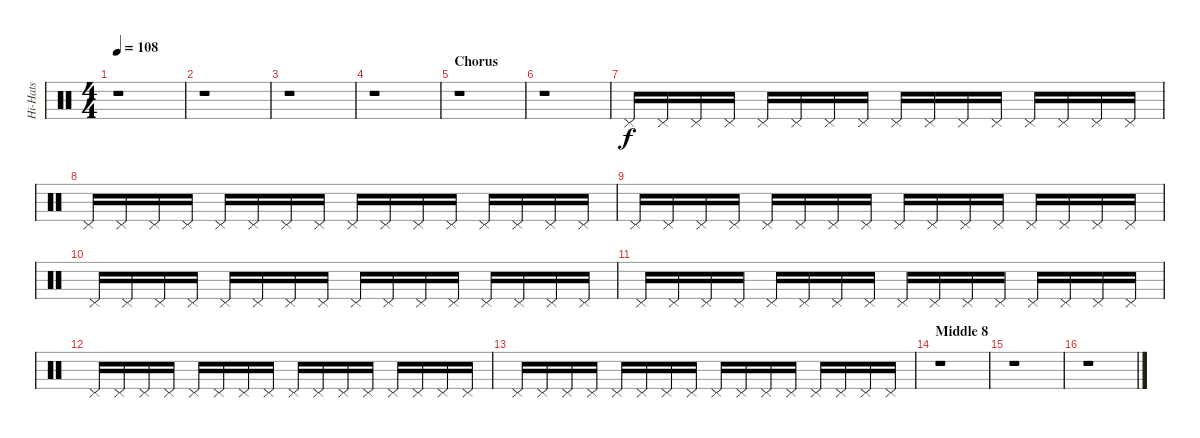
\track ("Hi-Hats" "Hi-Hats") {instrument percussion}
\staff {score}
\articulation defaults
\ts (4 4)
\tempo 108
\clef neutral
\ks c
r.1{dy f} |
r.1 |
r.1 |
r.1 |
\section ("" "Chorus")
r.1 |
r.1 |
"Pedal Hi-Hat (hit)".16 "Pedal Hi-Hat (hit)".16 "Pedal Hi-Hat (hit)".16 "Pedal Hi-Hat (hit)".16 "Pedal Hi-Hat (hit)".16 "Pedal Hi-Hat (hit)".16 "Pedal Hi-Hat (hit)".16 "Pedal Hi-Hat (hit)".16 "Pedal Hi-Hat (hit)".16 "Pedal Hi-Hat (hit)".16 "Pedal Hi-Hat (hit)".16 "Pedal Hi-Hat (hit)".16 "Pedal Hi-Hat (hit)".16 "Pedal Hi-Hat (hit)".16 "Pedal Hi-Hat (hit)".16 "Pedal Hi-Hat (hit)".16 |
"Pedal Hi-Hat (hit)".16 "Pedal Hi-Hat (hit)".16 "Pedal Hi-Hat (hit)".16 "Pedal Hi-Hat (hit)".16 "Pedal Hi-Hat (hit)".16 "Pedal Hi-Hat (hit)".16 "Pedal Hi-Hat (hit)".16 "Pedal Hi-Hat (hit)".16 "Pedal Hi-Hat (hit)".16 "Pedal Hi-Hat (hit)".16 "Pedal Hi-Hat (hit)".16 "Pedal Hi-Hat (hit)".16 "Pedal Hi-Hat (hit)".16 "Pedal Hi-Hat (hit)".16 "Pedal Hi-Hat (hit)".16 "Pedal Hi-Hat (hit)".16 |
"Pedal Hi-Hat (hit)".16 "Pedal Hi-Hat (hit)".16 "Pedal Hi-Hat (hit)".16 "Pedal Hi-Hat (hit)".16 "Pedal Hi-Hat (hit)".16 "Pedal Hi-Hat (hit)".16 "Pedal Hi-Hat (hit)".16 "Pedal Hi-Hat (hit)".16 "Pedal Hi-Hat (hit)".16 "Pedal Hi-Hat (hit)".16 "Pedal Hi-Hat (hit)".16 "Pedal Hi-Hat (hit)".16 "Pedal Hi-Hat (hit)".16 "Pedal Hi-Hat (hit)".16 "Pedal Hi-Hat (hit)".16 "Pedal Hi-Hat (hit)".16 |
"Pedal Hi-Hat (hit)".16 "Pedal Hi-Hat (hit)".16 "Pedal Hi-Hat (hit)".16 "Pedal Hi-Hat (hit)".16 "Pedal Hi-Hat (hit)".16 "Pedal Hi-Hat (hit)".16 "Pedal Hi-Hat (hit)".16 "Pedal Hi-Hat (hit)".16 "Pedal Hi-Hat (hit)".16 "Pedal Hi-Hat (hit)".16 "Pedal Hi-Hat (hit)".16 "Pedal Hi-Hat (hit)".16 "Pedal Hi-Hat (hit)".16 "Pedal Hi-Hat (hit)".16 "Pedal Hi-Hat (hit)".16 "Pedal Hi-Hat (hit)".16 |
"Pedal Hi-Hat (hit)".16 "Pedal Hi-Hat (hit)".16 "Pedal Hi-Hat (hit)".16 "Pedal Hi-Hat (hit)".16 "Pedal Hi-Hat (hit)".16 "Pedal Hi-Hat (hit)".16 "Pedal Hi-Hat (hit)".16 "Pedal Hi-Hat (hit)".16 "Pedal Hi-Hat (hit)".16 "Pedal Hi-Hat (hit)".16 "Pedal Hi-Hat (hit)".16 "Pedal Hi-Hat (hit)".16 "Pedal Hi-Hat (hit)".16 "Pedal Hi-Hat (hit)".16 "Pedal Hi-Hat (hit)".16 "Pedal Hi-Hat (hit)".16 |
"Pedal Hi-Hat (hit)".16 "Pedal Hi-Hat (hit)".16 "Pedal Hi-Hat (hit)".16 "Pedal Hi-Hat (hit)".16 "Pedal Hi-Hat (hit)".16 "Pedal Hi-Hat (hit)".16 "Pedal Hi-Hat (hit)".16 "Pedal Hi-Hat (hit)".16 "Pedal Hi-Hat (hit)".16 "Pedal Hi-Hat (hit)".16 "Pedal Hi-Hat (hit)".16 "Pedal Hi-Hat (hit)".16 "Pedal Hi-Hat (hit)".16 "Pedal Hi-Hat (hit)".16 "Pedal Hi-Hat (hit)".16 "Pedal Hi-Hat (hit)".16 |
"Pedal Hi-Hat (hit)".16 "Pedal Hi-Hat (hit)".16 "Pedal Hi-Hat (hit)".16 "Pedal Hi-Hat (hit)".16 "Pedal Hi-Hat (hit)".16 "Pedal Hi-Hat (hit)".16 "Pedal Hi-Hat (hit)".16 "Pedal Hi-Hat (hit)".16 "Pedal Hi-Hat (hit)".16 "Pedal Hi-Hat (hit)".16 "Pedal Hi-Hat (hit)".16 "Pedal Hi-Hat (hit)".16 "Pedal Hi-Hat (hit)".16 "Pedal Hi-Hat (hit)".16 "Pedal Hi-Hat (hit)".16 "Pedal Hi-Hat (hit)".16 |
\section ("" "Middle 8")
r.1 |
r.1 |
r.1
